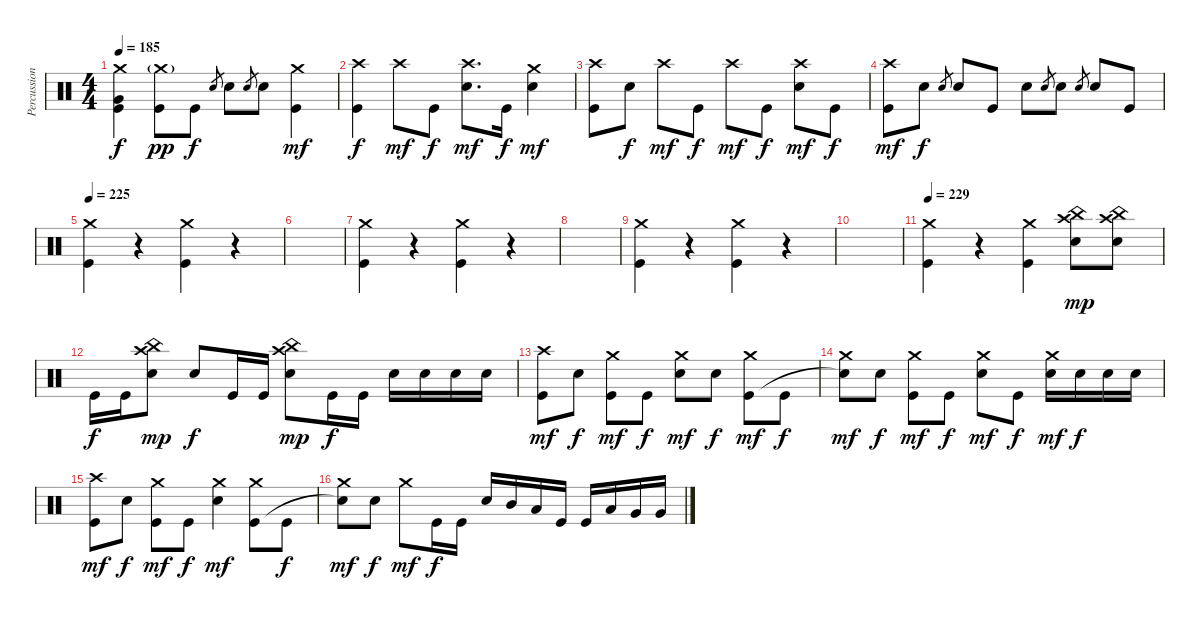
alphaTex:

\track ("Percussion" "Percussion") {instrument percussion}
\staff {score}
\articulation defaults
\ts (4 4)
\tempo 185
\clef neutral
\ks c
("Crash medium (hit)" "Very Low Tom (hit)" "Kick (hit)").4{dy f} ("Crash medium (hit)"{g} "Kick (hit)").8{dy pp} "Kick (hit)".8{dy f} "Electric Snare (hit)".8{gr} "Electric Snare (hit)".8 "Electric Snare (hit)".8{gr} "Electric Snare (hit)".8 ("Crash medium (hit)" "Kick (hit)").4{dy mf} |
("Crash high (hit)" "Kick (hit)").4{dy f} "Crash high (hit)".8{dy mf} "Kick (hit)".8{dy f} ("Crash high (hit)" "Electric Snare (hit)").8{d dy mf} "Kick (hit)".16{dy f} ("Crash medium (hit)" "Electric Snare (hit)").4{dy mf} |
("Crash high (hit)" "Kick (hit)").8 "Electric Snare (hit)".8{dy f} "Crash high (hit)".8{dy mf} "Kick (hit)".8{dy f} "Crash high (hit)".8{dy mf} "Kick (hit)".8{dy f} ("Crash high (hit)" "Electric Snare (hit)").8{dy mf} "Kick (hit)".8{dy f} |
("Crash high (hit)" "Kick (hit)").8{dy mf} "Electric Snare (hit)".8{dy f} "Electric Snare (hit)".8{gr} "Electric Snare (hit)".8 "Kick (hit)".8 "Electric Snare (hit)".8 "Electric Snare (hit)".8{gr} "Electric Snare (hit)".8 "Electric Snare (hit)".8{gr} "Electric Snare (hit)".8 "Kick (hit)".8 |
\tempo 225
("Crash medium (hit)" "Kick (hit)").4 r.4 ("Crash medium (hit)" "Kick (hit)").4 r.4 |
|
("Crash medium (hit)" "Kick (hit)").4 r.4 ("Crash medium (hit)" "Kick (hit)").4 r.4 |
|
("Crash medium (hit)" "Kick (hit)").4 r.4 ("Crash medium (hit)" "Kick (hit)").4 r.4 |
|
\tempo 229
("Crash medium (hit)" "Kick (hit)").4 r.4 ("Crash medium (hit)" "Kick (hit)").4 ("China (hit)" "Crash high (hit)" "Electric Snare (hit)").8{dy mp} ("China (hit)" "Crash high (hit)" "Electric Snare (hit)").8 |
"Kick (hit)".16{dy f} "Kick (hit)".16 ("China (hit)" "Crash high (hit)" "Electric Snare (hit)").8{dy mp} "Electric Snare (hit)".8{dy f} "Kick (hit)".16 "Kick (hit)".16 ("China (hit)" "Crash high (hit)" "Electric Snare (hit)").8{dy mp} "Kick (hit)".16{dy f} "Kick (hit)".16 "Electric Snare (hit)".16 "Electric Snare (hit)".16 "Electric Snare (hit)".16 "Electric Snare (hit)".16 |
("Crash high (hit)" "Kick (hit)").8{dy mf} "Electric Snare (hit)".8{dy f} ("Crash medium (hit)" "Kick (hit)").8{dy mf} "Kick (hit)".8{dy f} ("Crash medium (hit)" "Electric Snare (hit)").8{dy mf} "Electric Snare (hit)".8{dy f} ("Crash medium (hit)" "Kick (hit)").8{dy mf} "Kick (hit)".8{dy f} |
("Crash medium (hit)" "Snare (hit)"{t}).8{dy mf} "Electric Snare (hit)".8{dy f} ("Crash medium (hit)" "Kick (hit)").8{dy mf} "Kick (hit)".8{dy f} ("Crash medium (hit)" "Electric Snare (hit)").8{dy mf} "Kick (hit)".8{dy f} ("Crash medium (hit)" "Electric Snare (hit)").16{dy mf} "Electric Snare (hit)".16{dy f} "Electric Snare (hit)".16 "Electric Snare (hit)".16 |
("Crash high (hit)" "Kick (hit)").8{dy mf} "Electric Snare (hit)".8{dy f} ("Crash medium (hit)" "Kick (hit)").8{dy mf} "Kick (hit)".8{dy f} ("Crash medium (hit)" "Electric Snare (hit)").4{dy mf} ("Crash medium (hit)" "Kick (hit)").8 "Kick (hit)".8{dy f} |
("Crash medium (hit)" "Snare (hit)"{t}).8{dy mf} "Electric Snare (hit)".8{dy f} "Crash medium (hit)".8{dy mf} "Kick (hit)".16{dy f} "Kick (hit)".16 "Electric Snare (hit)".16 "Mid Tom (hit)".16 "Low Tom (hit)".16 "Kick (hit)".16 "Kick (hit)".16 "Low Tom (hit)".16 "Very Low Tom (hit)".16 "Very Low Tom (hit)".16
